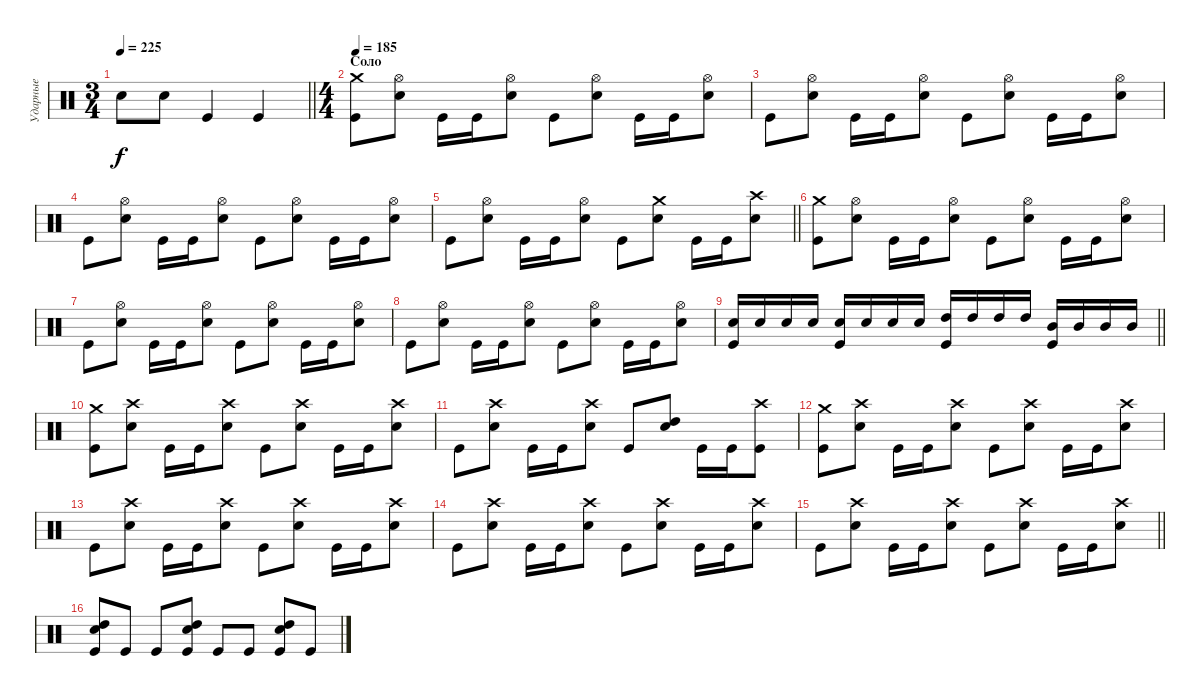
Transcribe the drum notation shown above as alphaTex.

\track ("Ударные" "Ударные") {instrument percussion}
\staff {score}
\articulation defaults
\ts (3 4)
\tempo 225
\clef neutral
\barLineRight lightlight
\ks c "Electric Snare (hit)".8{dy f} "Electric Snare (hit)".8 "Kick (hit)".4 "Kick (hit)".4
|
\ts (4 4)
\section ("" "Соло")
\tempo 185
("Crash medium (hit)" "Kick (hit)").8 ("Hi-Hat (open)" "Electric Snare (hit)").8 "Kick (hit)".16 "Kick (hit)".16 ("Hi-Hat (open)" "Electric Snare (hit)").8 "Kick (hit)".8 ("Hi-Hat (open)" "Electric Snare (hit)").8 "Kick (hit)".16 "Kick (hit)".16 ("Hi-Hat (open)" "Electric Snare (hit)").8 |
"Kick (hit)".8 ("Hi-Hat (open)" "Electric Snare (hit)").8 "Kick (hit)".16 "Kick (hit)".16 ("Hi-Hat (open)" "Electric Snare (hit)").8 "Kick (hit)".8 ("Hi-Hat (open)" "Electric Snare (hit)").8 "Kick (hit)".16 "Kick (hit)".16 ("Hi-Hat (open)" "Electric Snare (hit)").8 |
"Kick (hit)".8 ("Hi-Hat (open)" "Electric Snare (hit)").8 "Kick (hit)".16 "Kick (hit)".16 ("Hi-Hat (open)" "Electric Snare (hit)").8 "Kick (hit)".8 ("Hi-Hat (open)" "Electric Snare (hit)").8 "Kick (hit)".16 "Kick (hit)".16 ("Hi-Hat (open)" "Electric Snare (hit)").8 |
\barLineRight lightlight "Kick (hit)".8
("Hi-Hat (open)" "Electric Snare (hit)").8 "Kick (hit)".16 "Kick (hit)".16 ("Hi-Hat (open)" "Electric Snare (hit)").8 "Kick (hit)".8 ("Crash medium (hit)" "Electric Snare (hit)").8 "Kick (hit)".16 "Kick (hit)".16 ("Crash high (hit)" "Electric Snare (hit)").8 |
("Crash medium (hit)" "Kick (hit)").8 ("Hi-Hat (open)" "Electric Snare (hit)").8 "Kick (hit)".16 "Kick (hit)".16 ("Hi-Hat (open)" "Electric Snare (hit)").8 "Kick (hit)".8 ("Hi-Hat (open)" "Electric Snare (hit)").8 "Kick (hit)".16 "Kick (hit)".16 ("Hi-Hat (open)" "Electric Snare (hit)").8 |
"Kick (hit)".8 ("Hi-Hat (open)" "Electric Snare (hit)").8 "Kick (hit)".16 "Kick (hit)".16 ("Hi-Hat (open)" "Electric Snare (hit)").8 "Kick (hit)".8 ("Hi-Hat (open)" "Electric Snare (hit)").8 "Kick (hit)".16 "Kick (hit)".16 ("Hi-Hat (open)" "Electric Snare (hit)").8 |
"Kick (hit)".8 ("Hi-Hat (open)" "Electric Snare (hit)").8 "Kick (hit)".16 "Kick (hit)".16 ("Hi-Hat (open)" "Electric Snare (hit)").8 "Kick (hit)".8 ("Hi-Hat (open)" "Electric Snare (hit)").8 "Kick (hit)".16 "Kick (hit)".16 ("Hi-Hat (open)" "Electric Snare (hit)").8 |
\barLineRight lightlight
("Electric Snare (hit)" "Kick (hit)").16 "Electric Snare (hit)".16 "Electric Snare (hit)".16 "Electric Snare (hit)".16 ("Electric Snare (hit)" "Kick (hit)").16 "Electric Snare (hit)".16 "Electric Snare (hit)".16 "Electric Snare (hit)".16 ("High Tom (hit)" "Kick (hit)").16 "High Tom (hit)".16 "High Tom (hit)".16 "High Tom (hit)".16 ("Mid Tom (hit)" "Kick (hit)").16 "Mid Tom (hit)".16 "Mid Tom (hit)".16 "Mid Tom (hit)".16 |
("Crash medium (hit)" "Kick (hit)").8 ("Crash high (hit)" "Electric Snare (hit)").8 "Kick (hit)".16 "Kick (hit)".16 ("Crash high (hit)" "Electric Snare (hit)").8 "Kick (hit)".8 ("Crash high (hit)" "Electric Snare (hit)").8 "Kick (hit)".16 "Kick (hit)".16 ("Crash high (hit)" "Electric Snare (hit)").8 |
"Kick (hit)".8 ("Crash high (hit)" "Electric Snare (hit)").8 "Kick (hit)".16 "Kick (hit)".16 ("Crash high (hit)" "Electric Snare (hit)").8 "Kick (hit)".8 ("High Tom (hit)" "Electric Snare (hit)").8 "Kick (hit)".16 "Kick (hit)".16 ("Crash high (hit)" "Kick (hit)").8 |
("Crash medium (hit)" "Kick (hit)").8 ("Crash high (hit)" "Electric Snare (hit)").8 "Kick (hit)".16 "Kick (hit)".16 ("Crash high (hit)" "Electric Snare (hit)").8 "Kick (hit)".8 ("Crash high (hit)" "Electric Snare (hit)").8 "Kick (hit)".16 "Kick (hit)".16 ("Crash high (hit)" "Electric Snare (hit)").8 |
"Kick (hit)".8 ("Crash high (hit)" "Electric Snare (hit)").8 "Kick (hit)".16 "Kick (hit)".16 ("Crash high (hit)" "Electric Snare (hit)").8 "Kick (hit)".8 ("Crash high (hit)" "Electric Snare (hit)").8 "Kick (hit)".16 "Kick (hit)".16 ("Crash high (hit)" "Electric Snare (hit)").8 |
"Kick (hit)".8 ("Crash high (hit)" "Electric Snare (hit)").8 "Kick (hit)".16 "Kick (hit)".16 ("Crash high (hit)" "Electric Snare (hit)").8 "Kick (hit)".8 ("Crash high (hit)" "Electric Snare (hit)").8 "Kick (hit)".16 "Kick (hit)".16 ("Crash high (hit)" "Electric Snare (hit)").8 |
\barLineRight lightlight "Kick (hit)".8
("Crash high (hit)" "Electric Snare (hit)").8 "Kick (hit)".16 "Kick (hit)".16 ("Crash high (hit)" "Electric Snare (hit)").8 "Kick (hit)".8 ("Crash high (hit)" "Electric Snare (hit)").8 "Kick (hit)".16 "Kick (hit)".16 ("Crash high (hit)" "Electric Snare (hit)").8 |
("High Tom (hit)" "Electric Snare (hit)" "Kick (hit)").8 "Kick (hit)".8 "Kick (hit)".8 ("High Tom (hit)" "Electric Snare (hit)" "Kick (hit)").8 "Kick (hit)".8 "Kick (hit)".8 ("High Tom (hit)" "Electric Snare (hit)" "Kick (hit)").8 "Kick (hit)".8
